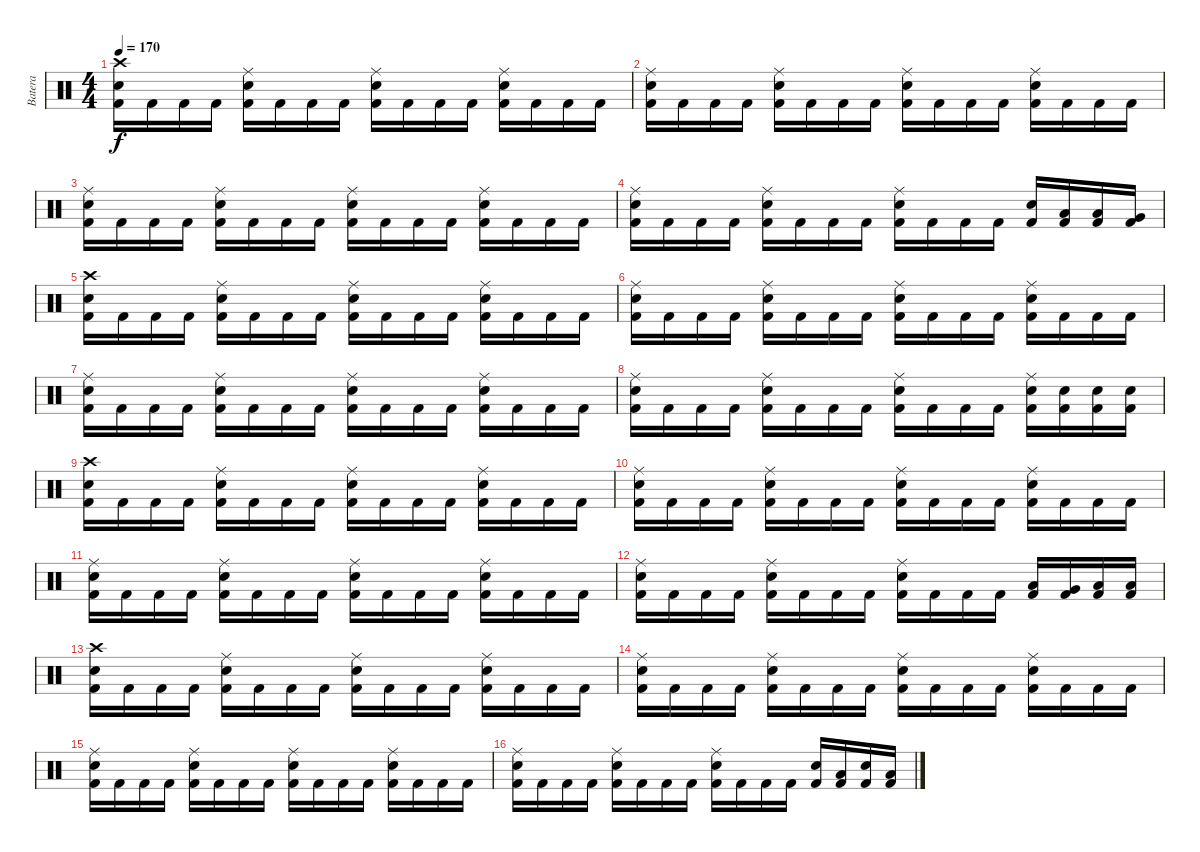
\track ("Batera" "Batera") {instrument percussion}
\staff {score}
\articulation defaults
\ts (4 4)
\tempo 170
\clef neutral
\ks c
("Crash high (hit)" "Electric Snare (hit)" "Kick (hit) 2").16{dy f} "Kick (hit) 2".16 "Kick (hit) 2".16 "Kick (hit) 2".16 ("Ride (middle)" "Electric Snare (hit)" "Kick (hit) 2").16 "Kick (hit) 2".16 "Kick (hit) 2".16 "Kick (hit) 2".16 ("Ride (middle)" "Electric Snare (hit)" "Kick (hit) 2").16 "Kick (hit) 2".16 "Kick (hit) 2".16 "Kick (hit) 2".16 ("Ride (middle)" "Electric Snare (hit)" "Kick (hit) 2").16 "Kick (hit) 2".16 "Kick (hit) 2".16 "Kick (hit) 2".16 |
("Ride (middle)" "Electric Snare (hit)" "Kick (hit) 2").16 "Kick (hit) 2".16 "Kick (hit) 2".16 "Kick (hit) 2".16 ("Ride (middle)" "Electric Snare (hit)" "Kick (hit) 2").16 "Kick (hit) 2".16 "Kick (hit) 2".16 "Kick (hit) 2".16 ("Ride (middle)" "Electric Snare (hit)" "Kick (hit) 2").16 "Kick (hit) 2".16 "Kick (hit) 2".16 "Kick (hit) 2".16 ("Ride (middle)" "Electric Snare (hit)" "Kick (hit) 2").16 "Kick (hit) 2".16 "Kick (hit) 2".16 "Kick (hit) 2".16 |
("Ride (middle)" "Electric Snare (hit)" "Kick (hit) 2").16 "Kick (hit) 2".16 "Kick (hit) 2".16 "Kick (hit) 2".16 ("Ride (middle)" "Electric Snare (hit)" "Kick (hit) 2").16 "Kick (hit) 2".16 "Kick (hit) 2".16 "Kick (hit) 2".16 ("Ride (middle)" "Electric Snare (hit)" "Kick (hit) 2").16 "Kick (hit) 2".16 "Kick (hit) 2".16 "Kick (hit) 2".16 ("Ride (middle)" "Electric Snare (hit)" "Kick (hit) 2").16 "Kick (hit) 2".16 "Kick (hit) 2".16 "Kick (hit) 2".16 |
("Ride (middle)" "Electric Snare (hit)" "Kick (hit) 2").16 "Kick (hit) 2".16 "Kick (hit) 2".16 "Kick (hit) 2".16 ("Ride (middle)" "Electric Snare (hit)" "Kick (hit) 2").16 "Kick (hit) 2".16 "Kick (hit) 2".16 "Kick (hit) 2".16 ("Ride (middle)" "Electric Snare (hit)" "Kick (hit) 2").16 "Kick (hit) 2".16 "Kick (hit) 2".16 "Kick (hit) 2".16 ("Electric Snare (hit)" "Kick (hit) 2").16 ("Low Floor Tom (hit)" "Kick (hit) 2").16 ("Low Tom (hit)" "Kick (hit) 2").16 ("Very Low Tom (hit)" "Kick (hit) 2").16 |
("Crash high (hit)" "Electric Snare (hit)" "Kick (hit) 2").16 "Kick (hit) 2".16 "Kick (hit) 2".16 "Kick (hit) 2".16 ("Ride (middle)" "Electric Snare (hit)" "Kick (hit) 2").16 "Kick (hit) 2".16 "Kick (hit) 2".16 "Kick (hit) 2".16 ("Ride (middle)" "Electric Snare (hit)" "Kick (hit) 2").16 "Kick (hit) 2".16 "Kick (hit) 2".16 "Kick (hit) 2".16 ("Ride (middle)" "Electric Snare (hit)" "Kick (hit) 2").16 "Kick (hit) 2".16 "Kick (hit) 2".16 "Kick (hit) 2".16 |
("Ride (middle)" "Electric Snare (hit)" "Kick (hit) 2").16 "Kick (hit) 2".16 "Kick (hit) 2".16 "Kick (hit) 2".16 ("Ride (middle)" "Electric Snare (hit)" "Kick (hit) 2").16 "Kick (hit) 2".16 "Kick (hit) 2".16 "Kick (hit) 2".16 ("Ride (middle)" "Electric Snare (hit)" "Kick (hit) 2").16 "Kick (hit) 2".16 "Kick (hit) 2".16 "Kick (hit) 2".16 ("Ride (middle)" "Electric Snare (hit)" "Kick (hit) 2").16 "Kick (hit) 2".16 "Kick (hit) 2".16 "Kick (hit) 2".16 |
("Ride (middle)" "Electric Snare (hit)" "Kick (hit) 2").16 "Kick (hit) 2".16 "Kick (hit) 2".16 "Kick (hit) 2".16 ("Ride (middle)" "Electric Snare (hit)" "Kick (hit) 2").16 "Kick (hit) 2".16 "Kick (hit) 2".16 "Kick (hit) 2".16 ("Ride (middle)" "Electric Snare (hit)" "Kick (hit) 2").16 "Kick (hit) 2".16 "Kick (hit) 2".16 "Kick (hit) 2".16 ("Ride (middle)" "Electric Snare (hit)" "Kick (hit) 2").16 "Kick (hit) 2".16 "Kick (hit) 2".16 "Kick (hit) 2".16 |
("Ride (middle)" "Electric Snare (hit)" "Kick (hit) 2").16 "Kick (hit) 2".16 "Kick (hit) 2".16 "Kick (hit) 2".16 ("Ride (middle)" "Electric Snare (hit)" "Kick (hit) 2").16 "Kick (hit) 2".16 "Kick (hit) 2".16 "Kick (hit) 2".16 ("Ride (middle)" "Electric Snare (hit)" "Kick (hit) 2").16 "Kick (hit) 2".16 "Kick (hit) 2".16 "Kick (hit) 2".16 ("Ride (middle)" "Electric Snare (hit)" "Kick (hit) 2").16 ("Electric Snare (hit)" "Kick (hit) 2").16 ("Electric Snare (hit)" "Kick (hit) 2").16 ("Electric Snare (hit)" "Kick (hit) 2").16 |
("Crash high (hit)" "Electric Snare (hit)" "Kick (hit) 2").16 "Kick (hit) 2".16 "Kick (hit) 2".16 "Kick (hit) 2".16 ("Ride (middle)" "Electric Snare (hit)" "Kick (hit) 2").16 "Kick (hit) 2".16 "Kick (hit) 2".16 "Kick (hit) 2".16 ("Ride (middle)" "Electric Snare (hit)" "Kick (hit) 2").16 "Kick (hit) 2".16 "Kick (hit) 2".16 "Kick (hit) 2".16 ("Ride (middle)" "Electric Snare (hit)" "Kick (hit) 2").16 "Kick (hit) 2".16 "Kick (hit) 2".16 "Kick (hit) 2".16 |
("Ride (middle)" "Electric Snare (hit)" "Kick (hit) 2").16 "Kick (hit) 2".16 "Kick (hit) 2".16 "Kick (hit) 2".16 ("Ride (middle)" "Electric Snare (hit)" "Kick (hit) 2").16 "Kick (hit) 2".16 "Kick (hit) 2".16 "Kick (hit) 2".16 ("Ride (middle)" "Electric Snare (hit)" "Kick (hit) 2").16 "Kick (hit) 2".16 "Kick (hit) 2".16 "Kick (hit) 2".16 ("Ride (middle)" "Electric Snare (hit)" "Kick (hit) 2").16 "Kick (hit) 2".16 "Kick (hit) 2".16 "Kick (hit) 2".16 |
("Ride (middle)" "Electric Snare (hit)" "Kick (hit) 2").16 "Kick (hit) 2".16 "Kick (hit) 2".16 "Kick (hit) 2".16 ("Ride (middle)" "Electric Snare (hit)" "Kick (hit) 2").16 "Kick (hit) 2".16 "Kick (hit) 2".16 "Kick (hit) 2".16 ("Ride (middle)" "Electric Snare (hit)" "Kick (hit) 2").16 "Kick (hit) 2".16 "Kick (hit) 2".16 "Kick (hit) 2".16 ("Ride (middle)" "Electric Snare (hit)" "Kick (hit) 2").16 "Kick (hit) 2".16 "Kick (hit) 2".16 "Kick (hit) 2".16 |
("Ride (middle)" "Electric Snare (hit)" "Kick (hit) 2").16 "Kick (hit) 2".16 "Kick (hit) 2".16 "Kick (hit) 2".16 ("Ride (middle)" "Electric Snare (hit)" "Kick (hit) 2").16 "Kick (hit) 2".16 "Kick (hit) 2".16 "Kick (hit) 2".16 ("Ride (middle)" "Electric Snare (hit)" "Kick (hit) 2").16 "Kick (hit) 2".16 "Kick (hit) 2".16 "Kick (hit) 2".16 ("Low Floor Tom (hit)" "Kick (hit) 2").16 ("Very Low Tom (hit)" "Kick (hit) 2").16 ("Low Floor Tom (hit)" "Kick (hit) 2").16 ("Low Tom (hit)" "Kick (hit) 2").16 |
("Crash high (hit)" "Electric Snare (hit)" "Kick (hit) 2").16 "Kick (hit) 2".16 "Kick (hit) 2".16 "Kick (hit) 2".16 ("Ride (middle)" "Electric Snare (hit)" "Kick (hit) 2").16 "Kick (hit) 2".16 "Kick (hit) 2".16 "Kick (hit) 2".16 ("Ride (middle)" "Electric Snare (hit)" "Kick (hit) 2").16 "Kick (hit) 2".16 "Kick (hit) 2".16 "Kick (hit) 2".16 ("Ride (middle)" "Electric Snare (hit)" "Kick (hit) 2").16 "Kick (hit) 2".16 "Kick (hit) 2".16 "Kick (hit) 2".16 |
("Ride (middle)" "Electric Snare (hit)" "Kick (hit) 2").16 "Kick (hit) 2".16 "Kick (hit) 2".16 "Kick (hit) 2".16 ("Ride (middle)" "Electric Snare (hit)" "Kick (hit) 2").16 "Kick (hit) 2".16 "Kick (hit) 2".16 "Kick (hit) 2".16 ("Ride (middle)" "Electric Snare (hit)" "Kick (hit) 2").16 "Kick (hit) 2".16 "Kick (hit) 2".16 "Kick (hit) 2".16 ("Ride (middle)" "Electric Snare (hit)" "Kick (hit) 2").16 "Kick (hit) 2".16 "Kick (hit) 2".16 "Kick (hit) 2".16 |
("Ride (middle)" "Electric Snare (hit)" "Kick (hit) 2").16 "Kick (hit) 2".16 "Kick (hit) 2".16 "Kick (hit) 2".16 ("Ride (middle)" "Electric Snare (hit)" "Kick (hit) 2").16 "Kick (hit) 2".16 "Kick (hit) 2".16 "Kick (hit) 2".16 ("Ride (middle)" "Electric Snare (hit)" "Kick (hit) 2").16 "Kick (hit) 2".16 "Kick (hit) 2".16 "Kick (hit) 2".16 ("Ride (middle)" "Electric Snare (hit)" "Kick (hit) 2").16 "Kick (hit) 2".16 "Kick (hit) 2".16 "Kick (hit) 2".16 |
("Ride (middle)" "Electric Snare (hit)" "Kick (hit) 2").16 "Kick (hit) 2".16 "Kick (hit) 2".16 "Kick (hit) 2".16 ("Ride (middle)" "Electric Snare (hit)" "Kick (hit) 2").16 "Kick (hit) 2".16 "Kick (hit) 2".16 "Kick (hit) 2".16 ("Ride (middle)" "Electric Snare (hit)" "Kick (hit) 2").16 "Kick (hit) 2".16 "Kick (hit) 2".16 "Kick (hit) 2".16 ("Electric Snare (hit)" "Kick (hit) 2").16 ("Low Floor Tom (hit)" "Kick (hit) 2").16 ("Electric Snare (hit)" "Kick (hit) 2").16 ("Low Floor Tom (hit)" "Kick (hit) 2").16
